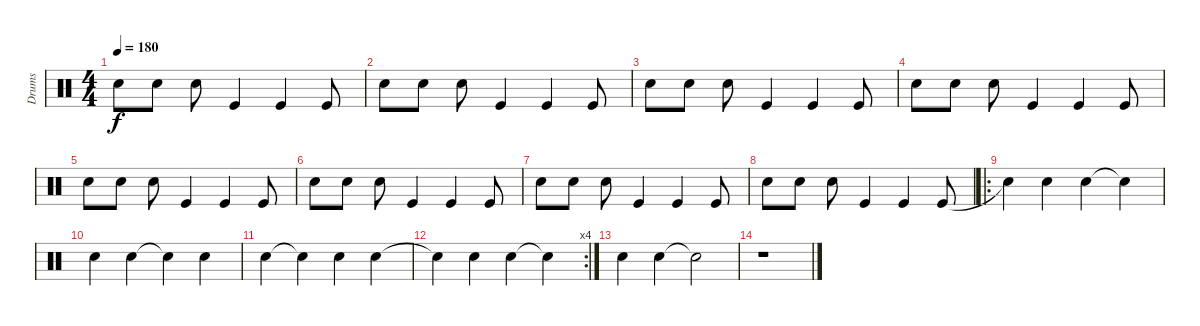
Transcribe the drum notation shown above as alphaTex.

\track ("Drums" "Drums") {instrument percussion}
\staff {score}
\articulation defaults
\ts (4 4)
\tempo 180
\clef neutral
\ks c "Snare (hit) 2".8{dy f} "Snare (hit) 2".8 "Snare (hit) 2".8 "Kick (hit)".4 "Kick (hit)".4 "Kick (hit)".8
|
"Snare (hit) 2".8 "Snare (hit) 2".8 "Snare (hit) 2".8 "Kick (hit)".4 "Kick (hit)".4 "Kick (hit)".8 |
"Snare (hit) 2".8 "Snare (hit) 2".8 "Snare (hit) 2".8 "Kick (hit)".4 "Kick (hit)".4 "Kick (hit)".8 |
"Snare (hit) 2".8 "Snare (hit) 2".8 "Snare (hit) 2".8 "Kick (hit)".4 "Kick (hit)".4 "Kick (hit)".8 |
"Snare (hit) 2".8 "Snare (hit) 2".8 "Snare (hit) 2".8 "Kick (hit)".4 "Kick (hit)".4 "Kick (hit)".8 |
"Snare (hit) 2".8 "Snare (hit) 2".8 "Snare (hit) 2".8 "Kick (hit)".4 "Kick (hit)".4 "Kick (hit)".8 |
"Snare (hit) 2".8 "Snare (hit) 2".8 "Snare (hit) 2".8 "Kick (hit)".4 "Kick (hit)".4 "Kick (hit)".8 |
"Snare (hit) 2".8 "Snare (hit) 2".8 "Snare (hit) 2".8 "Kick (hit)".4 "Kick (hit)".4 "Kick (hit)".8 |
\ro "Snare (hit) 2"{t}.4 "Snare (hit) 2".4 "Snare (hit) 2".4 "Snare (hit)"{t}.4
|
"Snare (hit) 2".4 "Snare (hit) 2".4 "Snare (hit)"{t}.4 "Snare (hit) 2".4 |
"Snare (hit) 2".4 "Snare (hit)"{t}.4 "Snare (hit) 2".4 "Snare (hit) 2".4 |
\rc 4 "Snare (hit)"{t}.4 "Snare (hit) 2".4 "Snare (hit) 2".4 "Snare (hit)"{t}.4
|
"Snare (hit) 2".4 "Snare (hit) 2".4 "Snare (hit)"{t}.2 |
r.1
